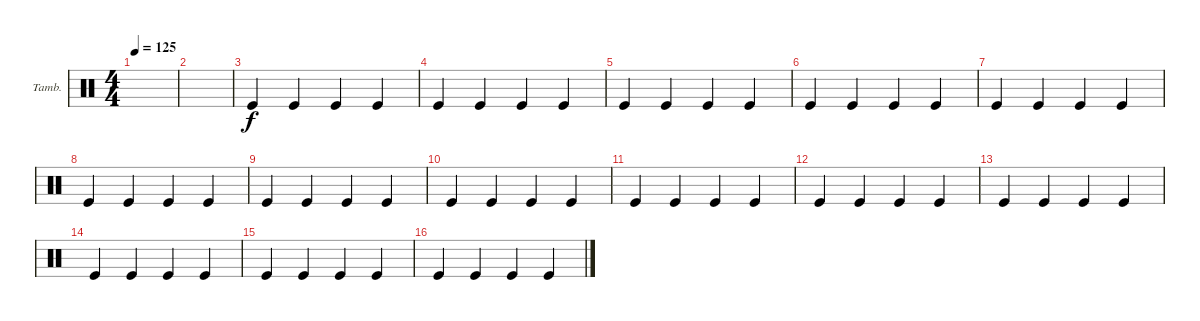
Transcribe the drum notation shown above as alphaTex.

\defaultSystemsLayout 4
\bracketExtendMode groupsimilarinstruments
\firstSystemTrackNameOrientation horizontal
\otherSystemsTrackNameOrientation horizontal
\track ("Tambourine" "Tamb.") {instrument percussion}
\staff {score}
\articulation defaults
\ts (4 4)
\tempo 125
\clef neutral
\ks c
|
|
"Kick (hit)".4 "Kick (hit)".4 "Kick (hit)".4 "Kick (hit)".4 |
"Kick (hit)".4 "Kick (hit)".4 "Kick (hit)".4 "Kick (hit)".4 |
"Kick (hit)".4 "Kick (hit)".4 "Kick (hit)".4 "Kick (hit)".4 |
"Kick (hit)".4 "Kick (hit)".4 "Kick (hit)".4 "Kick (hit)".4 |
"Kick (hit)".4 "Kick (hit)".4 "Kick (hit)".4 "Kick (hit)".4 |
"Kick (hit)".4 "Kick (hit)".4 "Kick (hit)".4 "Kick (hit)".4 |
"Kick (hit)".4 "Kick (hit)".4 "Kick (hit)".4 "Kick (hit)".4 |
"Kick (hit)".4 "Kick (hit)".4 "Kick (hit)".4 "Kick (hit)".4 |
"Kick (hit)".4 "Kick (hit)".4 "Kick (hit)".4 "Kick (hit)".4 |
"Kick (hit)".4 "Kick (hit)".4 "Kick (hit)".4 "Kick (hit)".4 |
"Kick (hit)".4 "Kick (hit)".4 "Kick (hit)".4 "Kick (hit)".4 |
"Kick (hit)".4 "Kick (hit)".4 "Kick (hit)".4 "Kick (hit)".4 |
"Kick (hit)".4 "Kick (hit)".4 "Kick (hit)".4 "Kick (hit)".4 |
"Kick (hit)".4 "Kick (hit)".4 "Kick (hit)".4 "Kick (hit)".4
